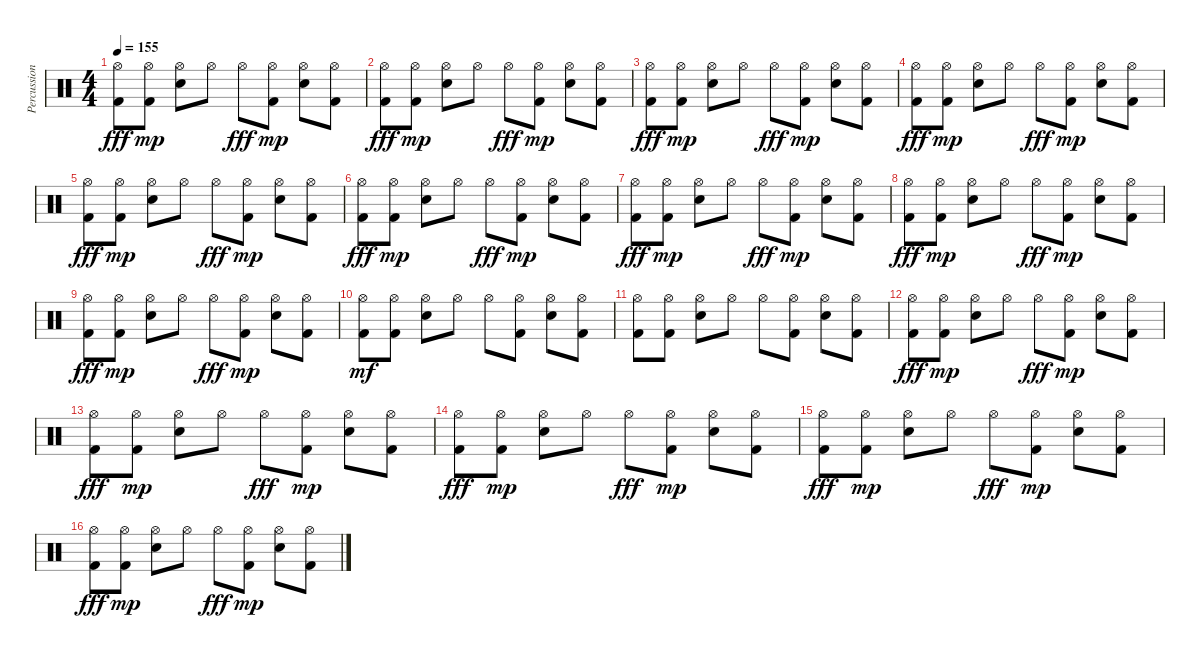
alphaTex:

\track ("Percussion" "Percussion") {instrument percussion}
\staff {score}
\articulation defaults
\ts (4 4)
\tempo 155
\clef neutral
\ks c
("Kick (hit) 2" "Hi-Hat (open)").8{dy fff} ("Kick (hit) 2" "Hi-Hat (open)").8{dy mp} ("Snare (hit) 2" "Hi-Hat (open)").8 "Hi-Hat (open)".8 "Hi-Hat (open)".8{dy fff} ("Kick (hit) 2" "Hi-Hat (open)").8{dy mp} ("Snare (hit) 2" "Hi-Hat (open)").8 ("Kick (hit) 2" "Hi-Hat (open)").8 |
("Kick (hit) 2" "Hi-Hat (open)").8{dy fff} ("Kick (hit) 2" "Hi-Hat (open)").8{dy mp} ("Snare (hit) 2" "Hi-Hat (open)").8 "Hi-Hat (open)".8 "Hi-Hat (open)".8{dy fff} ("Kick (hit) 2" "Hi-Hat (open)").8{dy mp} ("Snare (hit) 2" "Hi-Hat (open)").8 ("Kick (hit) 2" "Hi-Hat (open)").8 |
("Kick (hit) 2" "Hi-Hat (open)").8{dy fff} ("Kick (hit) 2" "Hi-Hat (open)").8{dy mp} ("Snare (hit) 2" "Hi-Hat (open)").8 "Hi-Hat (open)".8 "Hi-Hat (open)".8{dy fff} ("Kick (hit) 2" "Hi-Hat (open)").8{dy mp} ("Snare (hit) 2" "Hi-Hat (open)").8 ("Kick (hit) 2" "Hi-Hat (open)").8 |
("Kick (hit) 2" "Hi-Hat (open)").8{dy fff} ("Kick (hit) 2" "Hi-Hat (open)").8{dy mp} ("Snare (hit) 2" "Hi-Hat (open)").8 "Hi-Hat (open)".8 "Hi-Hat (open)".8{dy fff} ("Kick (hit) 2" "Hi-Hat (open)").8{dy mp} ("Snare (hit) 2" "Hi-Hat (open)").8 ("Kick (hit) 2" "Hi-Hat (open)").8 |
("Kick (hit) 2" "Hi-Hat (open)").8{dy fff} ("Kick (hit) 2" "Hi-Hat (open)").8{dy mp} ("Snare (hit) 2" "Hi-Hat (open)").8 "Hi-Hat (open)".8 "Hi-Hat (open)".8{dy fff} ("Kick (hit) 2" "Hi-Hat (open)").8{dy mp} ("Snare (hit) 2" "Hi-Hat (open)").8 ("Kick (hit) 2" "Hi-Hat (open)").8 |
("Kick (hit) 2" "Hi-Hat (open)").8{dy fff} ("Kick (hit) 2" "Hi-Hat (open)").8{dy mp} ("Snare (hit) 2" "Hi-Hat (open)").8 "Hi-Hat (open)".8 "Hi-Hat (open)".8{dy fff} ("Kick (hit) 2" "Hi-Hat (open)").8{dy mp} ("Snare (hit) 2" "Hi-Hat (open)").8 ("Kick (hit) 2" "Hi-Hat (open)").8 |
("Kick (hit) 2" "Hi-Hat (open)").8{dy fff} ("Kick (hit) 2" "Hi-Hat (open)").8{dy mp} ("Snare (hit) 2" "Hi-Hat (open)").8 "Hi-Hat (open)".8 "Hi-Hat (open)".8{dy fff} ("Kick (hit) 2" "Hi-Hat (open)").8{dy mp} ("Snare (hit) 2" "Hi-Hat (open)").8 ("Kick (hit) 2" "Hi-Hat (open)").8 |
("Kick (hit) 2" "Hi-Hat (open)").8{dy fff} ("Kick (hit) 2" "Hi-Hat (open)").8{dy mp} ("Snare (hit) 2" "Hi-Hat (open)").8 "Hi-Hat (open)".8 "Hi-Hat (open)".8{dy fff} ("Kick (hit) 2" "Hi-Hat (open)").8{dy mp} ("Snare (hit) 2" "Hi-Hat (open)").8 ("Kick (hit) 2" "Hi-Hat (open)").8 |
("Kick (hit) 2" "Hi-Hat (open)").8{dy fff} ("Kick (hit) 2" "Hi-Hat (open)").8{dy mp} ("Snare (hit) 2" "Hi-Hat (open)").8 "Hi-Hat (open)".8 "Hi-Hat (open)".8{dy fff} ("Kick (hit) 2" "Hi-Hat (open)").8{dy mp} ("Snare (hit) 2" "Hi-Hat (open)").8 ("Kick (hit) 2" "Hi-Hat (open)").8 |
("Kick (hit) 2" "Hi-Hat (open)").8{dy mf} ("Kick (hit) 2" "Hi-Hat (open)").8 ("Snare (hit) 2" "Hi-Hat (open)").8 "Hi-Hat (open)".8 "Hi-Hat (open)".8 ("Kick (hit) 2" "Hi-Hat (open)").8 ("Snare (hit) 2" "Hi-Hat (open)").8 ("Kick (hit) 2" "Hi-Hat (open)").8 |
("Kick (hit) 2" "Hi-Hat (open)").8 ("Kick (hit) 2" "Hi-Hat (open)").8 ("Snare (hit) 2" "Hi-Hat (open)").8 "Hi-Hat (open)".8 "Hi-Hat (open)".8 ("Kick (hit) 2" "Hi-Hat (open)").8 ("Snare (hit) 2" "Hi-Hat (open)").8 ("Kick (hit) 2" "Hi-Hat (open)").8 |
("Kick (hit) 2" "Hi-Hat (open)").8{dy fff} ("Kick (hit) 2" "Hi-Hat (open)").8{dy mp} ("Snare (hit) 2" "Hi-Hat (open)").8 "Hi-Hat (open)".8 "Hi-Hat (open)".8{dy fff} ("Kick (hit) 2" "Hi-Hat (open)").8{dy mp} ("Snare (hit) 2" "Hi-Hat (open)").8 ("Kick (hit) 2" "Hi-Hat (open)").8 |
("Kick (hit) 2" "Hi-Hat (open)").8{dy fff} ("Kick (hit) 2" "Hi-Hat (open)").8{dy mp} ("Snare (hit) 2" "Hi-Hat (open)").8 "Hi-Hat (open)".8 "Hi-Hat (open)".8{dy fff} ("Kick (hit) 2" "Hi-Hat (open)").8{dy mp} ("Snare (hit) 2" "Hi-Hat (open)").8 ("Kick (hit) 2" "Hi-Hat (open)").8 |
("Kick (hit) 2" "Hi-Hat (open)").8{dy fff} ("Kick (hit) 2" "Hi-Hat (open)").8{dy mp} ("Snare (hit) 2" "Hi-Hat (open)").8 "Hi-Hat (open)".8 "Hi-Hat (open)".8{dy fff} ("Kick (hit) 2" "Hi-Hat (open)").8{dy mp} ("Snare (hit) 2" "Hi-Hat (open)").8 ("Kick (hit) 2" "Hi-Hat (open)").8 |
("Kick (hit) 2" "Hi-Hat (open)").8{dy fff} ("Kick (hit) 2" "Hi-Hat (open)").8{dy mp} ("Snare (hit) 2" "Hi-Hat (open)").8 "Hi-Hat (open)".8 "Hi-Hat (open)".8{dy fff} ("Kick (hit) 2" "Hi-Hat (open)").8{dy mp} ("Snare (hit) 2" "Hi-Hat (open)").8 ("Kick (hit) 2" "Hi-Hat (open)").8 |
("Kick (hit) 2" "Hi-Hat (open)").8{dy fff} ("Kick (hit) 2" "Hi-Hat (open)").8{dy mp} ("Snare (hit) 2" "Hi-Hat (open)").8 "Hi-Hat (open)".8 "Hi-Hat (open)".8{dy fff} ("Kick (hit) 2" "Hi-Hat (open)").8{dy mp} ("Snare (hit) 2" "Hi-Hat (open)").8 ("Kick (hit) 2" "Hi-Hat (open)").8
